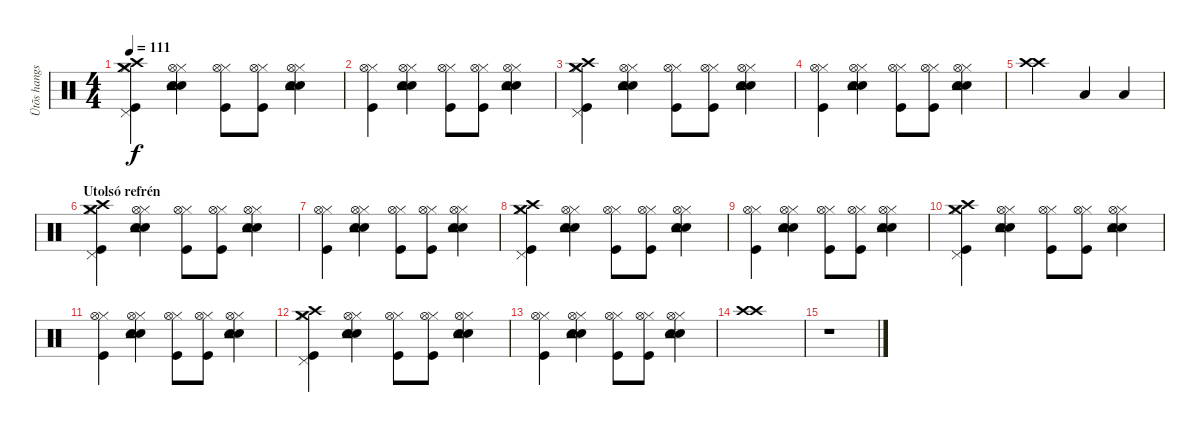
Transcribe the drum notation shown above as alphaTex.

\track ("Ütõs hangszer" "Ütõs hangs") {instrument percussion}
\staff {score}
\articulation defaults
\ts (4 4)
\tempo 111
\clef neutral
\ks c
("Hi-Hat (closed)" "Pedal Hi-Hat (hit)" "Crash high (hit)" "Crash medium (hit)" "Kick (hit)").4{dy f} ("Hi-Hat (closed)" "Electric Snare (hit)" "Snare (hit) 2" "Hi-Hat (open)" "Tambourine (hit)").4 ("Hi-Hat (closed)" "Hi-Hat (open)" "Kick (hit)").8 ("Hi-Hat (closed)" "Hi-Hat (open)" "Kick (hit)").8 ("Hi-Hat (closed)" "Electric Snare (hit)" "Snare (hit) 2" "Hi-Hat (open)" "Tambourine (hit)").4 |
("Hi-Hat (closed)" "Hi-Hat (open)" "Kick (hit)").4 ("Hi-Hat (closed)" "Electric Snare (hit)" "Snare (hit) 2" "Hi-Hat (open)" "Tambourine (hit)").4 ("Hi-Hat (closed)" "Hi-Hat (open)" "Kick (hit)").8 ("Hi-Hat (closed)" "Hi-Hat (open)" "Kick (hit)").8 ("Hi-Hat (closed)" "Electric Snare (hit)" "Snare (hit) 2" "Hi-Hat (open)" "Tambourine (hit)").4 |
("Hi-Hat (closed)" "Pedal Hi-Hat (hit)" "Crash high (hit)" "Crash medium (hit)" "Kick (hit)").4 ("Hi-Hat (closed)" "Electric Snare (hit)" "Snare (hit) 2" "Hi-Hat (open)" "Tambourine (hit)").4 ("Hi-Hat (closed)" "Hi-Hat (open)" "Kick (hit)").8 ("Hi-Hat (closed)" "Hi-Hat (open)" "Kick (hit)").8 ("Hi-Hat (closed)" "Electric Snare (hit)" "Snare (hit) 2" "Hi-Hat (open)" "Tambourine (hit)").4 |
("Hi-Hat (closed)" "Hi-Hat (open)" "Kick (hit)").4 ("Hi-Hat (closed)" "Electric Snare (hit)" "Snare (hit) 2" "Hi-Hat (open)" "Tambourine (hit)").4 ("Hi-Hat (closed)" "Hi-Hat (open)" "Kick (hit)").8 ("Hi-Hat (closed)" "Hi-Hat (open)" "Kick (hit)").8 ("Hi-Hat (closed)" "Electric Snare (hit)" "Snare (hit) 2" "Hi-Hat (open)" "Tambourine (hit)").4 |
("Crash high (hit)" "Crash high (hit)").2 "Low Tom (hit)".4 "Low Tom (hit)".4 |
\section ("" "Utolsó refrén")
("Hi-Hat (closed)" "Pedal Hi-Hat (hit)" "Crash high (hit)" "Crash medium (hit)" "Kick (hit)").4 ("Hi-Hat (closed)" "Electric Snare (hit)" "Snare (hit) 2" "Hi-Hat (open)" "Tambourine (hit)").4 ("Hi-Hat (closed)" "Hi-Hat (open)" "Kick (hit)").8 ("Hi-Hat (closed)" "Hi-Hat (open)" "Kick (hit)").8 ("Hi-Hat (closed)" "Electric Snare (hit)" "Snare (hit) 2" "Hi-Hat (open)" "Tambourine (hit)").4 |
("Hi-Hat (closed)" "Hi-Hat (open)" "Kick (hit)").4 ("Hi-Hat (closed)" "Electric Snare (hit)" "Snare (hit) 2" "Hi-Hat (open)" "Tambourine (hit)").4 ("Hi-Hat (closed)" "Hi-Hat (open)" "Kick (hit)").8 ("Hi-Hat (closed)" "Hi-Hat (open)" "Kick (hit)").8 ("Hi-Hat (closed)" "Electric Snare (hit)" "Snare (hit) 2" "Hi-Hat (open)" "Tambourine (hit)").4 |
("Hi-Hat (closed)" "Pedal Hi-Hat (hit)" "Crash high (hit)" "Crash medium (hit)" "Kick (hit)").4 ("Hi-Hat (closed)" "Electric Snare (hit)" "Snare (hit) 2" "Hi-Hat (open)" "Tambourine (hit)").4 ("Hi-Hat (closed)" "Hi-Hat (open)" "Kick (hit)").8 ("Hi-Hat (closed)" "Hi-Hat (open)" "Kick (hit)").8 ("Hi-Hat (closed)" "Electric Snare (hit)" "Snare (hit) 2" "Hi-Hat (open)" "Tambourine (hit)").4 |
("Hi-Hat (closed)" "Hi-Hat (open)" "Kick (hit)").4 ("Hi-Hat (closed)" "Electric Snare (hit)" "Snare (hit) 2" "Hi-Hat (open)" "Tambourine (hit)").4 ("Hi-Hat (closed)" "Hi-Hat (open)" "Kick (hit)").8 ("Hi-Hat (closed)" "Hi-Hat (open)" "Kick (hit)").8 ("Hi-Hat (closed)" "Electric Snare (hit)" "Snare (hit) 2" "Hi-Hat (open)" "Tambourine (hit)").4 |
("Hi-Hat (closed)" "Pedal Hi-Hat (hit)" "Crash high (hit)" "Crash medium (hit)" "Kick (hit)").4 ("Hi-Hat (closed)" "Electric Snare (hit)" "Snare (hit) 2" "Hi-Hat (open)" "Tambourine (hit)").4 ("Hi-Hat (closed)" "Hi-Hat (open)" "Kick (hit)").8 ("Hi-Hat (closed)" "Hi-Hat (open)" "Kick (hit)").8 ("Hi-Hat (closed)" "Electric Snare (hit)" "Snare (hit) 2" "Hi-Hat (open)" "Tambourine (hit)").4 |
("Hi-Hat (closed)" "Hi-Hat (open)" "Kick (hit)").4 ("Hi-Hat (closed)" "Electric Snare (hit)" "Snare (hit) 2" "Hi-Hat (open)" "Tambourine (hit)").4 ("Hi-Hat (closed)" "Hi-Hat (open)" "Kick (hit)").8 ("Hi-Hat (closed)" "Hi-Hat (open)" "Kick (hit)").8 ("Hi-Hat (closed)" "Electric Snare (hit)" "Snare (hit) 2" "Hi-Hat (open)" "Tambourine (hit)").4 |
("Hi-Hat (closed)" "Pedal Hi-Hat (hit)" "Crash high (hit)" "Crash medium (hit)" "Kick (hit)").4 ("Hi-Hat (closed)" "Electric Snare (hit)" "Snare (hit) 2" "Hi-Hat (open)" "Tambourine (hit)").4 ("Hi-Hat (closed)" "Hi-Hat (open)" "Kick (hit)").8 ("Hi-Hat (closed)" "Hi-Hat (open)" "Kick (hit)").8 ("Hi-Hat (closed)" "Electric Snare (hit)" "Snare (hit) 2" "Hi-Hat (open)" "Tambourine (hit)").4 |
("Hi-Hat (closed)" "Hi-Hat (open)" "Kick (hit)").4 ("Hi-Hat (closed)" "Electric Snare (hit)" "Snare (hit) 2" "Hi-Hat (open)" "Tambourine (hit)").4 ("Hi-Hat (closed)" "Hi-Hat (open)" "Kick (hit)").8 ("Hi-Hat (closed)" "Hi-Hat (open)" "Kick (hit)").8 ("Hi-Hat (closed)" "Electric Snare (hit)" "Snare (hit) 2" "Hi-Hat (open)" "Tambourine (hit)").4 |
("Crash high (hit)" "Crash high (hit)").1 |
r.1
